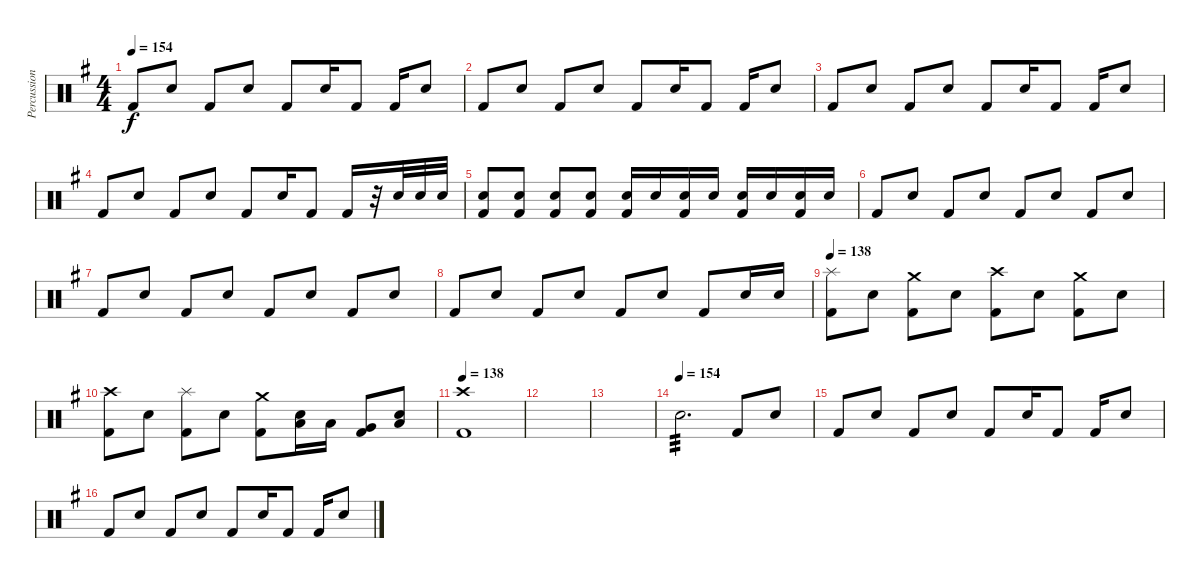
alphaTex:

\track ("Percussion" "Percussion") {instrument percussion}
\staff {score}
\articulation defaults
\ts (4 4)
\tempo 154
\clef neutral
\ks eminor "Kick (hit) 2".8{dy f} "Electric Snare (hit)".8 "Kick (hit) 2".8 "Electric Snare (hit)".8 "Kick (hit) 2".8 "Electric Snare (hit)".16 "Kick (hit) 2".8 "Kick (hit) 2".16 "Electric Snare (hit)".8
|
"Kick (hit) 2".8 "Electric Snare (hit)".8 "Kick (hit) 2".8 "Electric Snare (hit)".8 "Kick (hit) 2".8 "Electric Snare (hit)".16 "Kick (hit) 2".8 "Kick (hit) 2".16 "Electric Snare (hit)".8 |
"Kick (hit) 2".8 "Electric Snare (hit)".8 "Kick (hit) 2".8 "Electric Snare (hit)".8 "Kick (hit) 2".8 "Electric Snare (hit)".16 "Kick (hit) 2".8 "Kick (hit) 2".16 "Electric Snare (hit)".8 |
"Kick (hit) 2".8 "Electric Snare (hit)".8 "Kick (hit) 2".8 "Electric Snare (hit)".8 "Kick (hit) 2".8 "Electric Snare (hit)".16 "Kick (hit) 2".8 "Kick (hit) 2".16 r.32 "Electric Snare (hit)".32 "Electric Snare (hit)".32 "Electric Snare (hit)".32 |
("Kick (hit) 2" "Electric Snare (hit)").8 ("Kick (hit) 2" "Electric Snare (hit)").8 ("Kick (hit) 2" "Electric Snare (hit)").8 ("Kick (hit) 2" "Electric Snare (hit)").8 ("Kick (hit) 2" "Electric Snare (hit)").16 "Electric Snare (hit)".16 ("Kick (hit) 2" "Electric Snare (hit)").16 "Electric Snare (hit)".16 ("Kick (hit) 2" "Electric Snare (hit)").16 "Electric Snare (hit)".16 ("Kick (hit) 2" "Electric Snare (hit)").16 "Electric Snare (hit)".16 |
"Kick (hit) 2".8 "Electric Snare (hit)".8 "Kick (hit) 2".8 "Electric Snare (hit)".8 "Kick (hit) 2".8 "Electric Snare (hit)".8 "Kick (hit) 2".8 "Electric Snare (hit)".8 |
"Kick (hit) 2".8 "Electric Snare (hit)".8 "Kick (hit) 2".8 "Electric Snare (hit)".8 "Kick (hit) 2".8 "Electric Snare (hit)".8 "Kick (hit) 2".8 "Electric Snare (hit)".8 |
"Kick (hit) 2".8 "Electric Snare (hit)".8 "Kick (hit) 2".8 "Electric Snare (hit)".8 "Kick (hit) 2".8 "Electric Snare (hit)".8 "Kick (hit) 2".8 "Electric Snare (hit)".16 "Electric Snare (hit)".16 |
\tempo 138
("Kick (hit) 2" "Splash (hit)").8 "Electric Snare (hit)".8 ("Kick (hit) 2" "Crash medium (hit)").8 "Electric Snare (hit)".8 ("Kick (hit) 2" "Crash high (hit)").8 "Electric Snare (hit)".8 ("Kick (hit) 2" "Crash medium (hit)").8 "Electric Snare (hit)".8 |
("Kick (hit) 2" "Crash high (hit)").8 "Electric Snare (hit)".8 ("Kick (hit) 2" "Splash (hit)").8 "Electric Snare (hit)".8 ("Kick (hit) 2" "Crash medium (hit)").8 ("Electric Snare (hit)" "Low Floor Tom (hit)").16 "Low Floor Tom (hit)".16 ("Kick (hit) 2" "Very Low Tom (hit)").8 ("Electric Snare (hit)" "Low Floor Tom (hit)").8 |
\tempo 138
("Kick (hit) 2" "Crash high (hit)").1 |
|
|
\tempo (154)
"Electric Snare (hit)".2{d tp 3} "Kick (hit) 2".8 "Electric Snare (hit)".8 |
"Kick (hit) 2".8 "Electric Snare (hit)".8 "Kick (hit) 2".8 "Electric Snare (hit)".8 "Kick (hit) 2".8 "Electric Snare (hit)".16 "Kick (hit) 2".8 "Kick (hit) 2".16 "Electric Snare (hit)".8 |
"Kick (hit) 2".8 "Electric Snare (hit)".8 "Kick (hit) 2".8 "Electric Snare (hit)".8 "Kick (hit) 2".8 "Electric Snare (hit)".16 "Kick (hit) 2".8 "Kick (hit) 2".16 "Electric Snare (hit)".8
